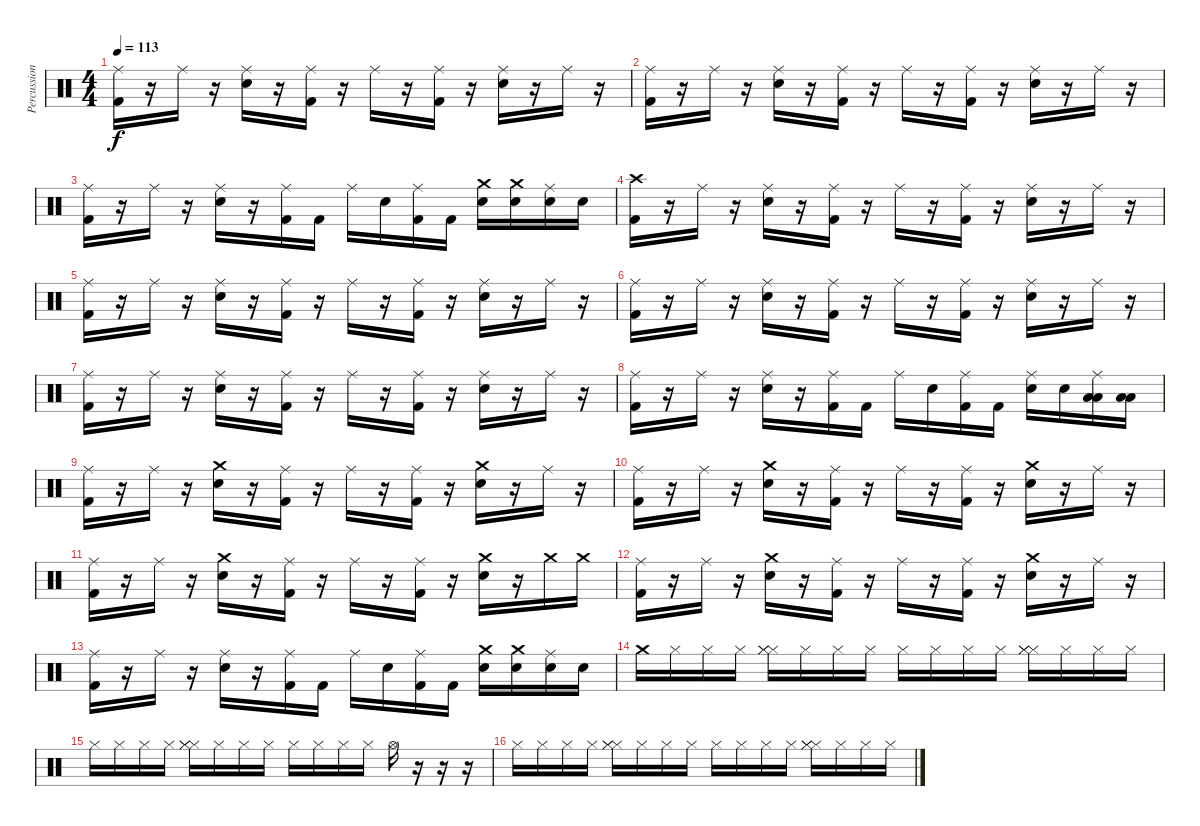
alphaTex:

\track ("Percussion" "Percussion") {instrument percussion}
\staff {score}
\articulation defaults
\ts (4 4)
\tempo 113
\clef neutral
\ks c
("Ride (middle)" "Kick (hit) 2").16{dy f} r.16 "Ride (middle)".16 r.16 ("Ride (middle)" "Snare (hit) 2").16 r.16 ("Ride (middle)" "Kick (hit) 2").16 r.16 "Ride (middle)".16 r.16 ("Ride (middle)" "Kick (hit) 2").16 r.16 ("Ride (middle)" "Snare (hit) 2").16 r.16 "Ride (middle)".16 r.16 |
("Ride (middle)" "Kick (hit) 2").16 r.16 "Ride (middle)".16 r.16 ("Ride (middle)" "Snare (hit) 2").16 r.16 ("Ride (middle)" "Kick (hit) 2").16 r.16 "Ride (middle)".16 r.16 ("Ride (middle)" "Kick (hit) 2").16 r.16 ("Ride (middle)" "Snare (hit) 2").16 r.16 "Ride (middle)".16 r.16 |
("Ride (middle)" "Kick (hit) 2").16 r.16 "Ride (middle)".16 r.16 ("Ride (middle)" "Snare (hit) 2").16 r.16 ("Ride (middle)" "Kick (hit) 2").16 "Kick (hit) 2".16 "Ride (middle)".16 "Snare (hit) 2".16 ("Ride (middle)" "Kick (hit) 2").16 "Kick (hit) 2".16 ("Crash medium (hit)" "Snare (hit) 2").16 ("Crash medium (hit)" "Snare (hit) 2").16 ("Ride (middle)" "Snare (hit) 2").16 "Snare (hit) 2".16 |
("Crash high (hit)" "Kick (hit) 2").16 r.16 "Ride (middle)".16 r.16 ("Ride (middle)" "Snare (hit) 2").16 r.16 ("Ride (middle)" "Kick (hit) 2").16 r.16 "Ride (middle)".16 r.16 ("Ride (middle)" "Kick (hit) 2").16 r.16 ("Ride (middle)" "Snare (hit) 2").16 r.16 "Ride (middle)".16 r.16 |
("Ride (middle)" "Kick (hit) 2").16 r.16 "Ride (middle)".16 r.16 ("Ride (middle)" "Snare (hit) 2").16 r.16 ("Ride (middle)" "Kick (hit) 2").16 r.16 "Ride (middle)".16 r.16 ("Ride (middle)" "Kick (hit) 2").16 r.16 ("Ride (middle)" "Snare (hit) 2").16 r.16 "Ride (middle)".16 r.16 |
("Ride (middle)" "Kick (hit) 2").16 r.16 "Ride (middle)".16 r.16 ("Ride (middle)" "Snare (hit) 2").16 r.16 ("Ride (middle)" "Kick (hit) 2").16 r.16 "Ride (middle)".16 r.16 ("Ride (middle)" "Kick (hit) 2").16 r.16 ("Ride (middle)" "Snare (hit) 2").16 r.16 "Ride (middle)".16 r.16 |
("Ride (middle)" "Kick (hit) 2").16 r.16 "Ride (middle)".16 r.16 ("Ride (middle)" "Snare (hit) 2").16 r.16 ("Ride (middle)" "Kick (hit) 2").16 r.16 "Ride (middle)".16 r.16 ("Ride (middle)" "Kick (hit) 2").16 r.16 ("Ride (middle)" "Snare (hit) 2").16 r.16 "Ride (middle)".16 r.16 |
("Ride (middle)" "Kick (hit) 2").16 r.16 "Ride (middle)".16 r.16 ("Ride (middle)" "Snare (hit) 2").16 r.16 ("Ride (middle)" "Kick (hit) 2").16 "Kick (hit) 2".16 "Ride (middle)".16 "Snare (hit) 2".16 ("Ride (middle)" "Kick (hit) 2").16 "Kick (hit) 2".16 ("Ride (middle)" "Snare (hit) 2").16 "Snare (hit) 2".16 ("Ride (middle)" "Low Tom (hit)" "Low Tom (hit)").16 ("Low Tom (hit)" "Low Tom (hit)").16 |
("Ride (middle)" "Kick (hit) 2").16 r.16 "Ride (middle)".16 r.16 ("Crash medium (hit)" "Snare (hit) 2").16 r.16 ("Ride (middle)" "Kick (hit) 2").16 r.16 "Ride (middle)".16 r.16 ("Ride (middle)" "Kick (hit) 2").16 r.16 ("Crash medium (hit)" "Snare (hit) 2").16 r.16 "Ride (middle)".16 r.16 |
("Ride (middle)" "Kick (hit) 2").16 r.16 "Ride (middle)".16 r.16 ("Crash medium (hit)" "Snare (hit) 2").16 r.16 ("Ride (middle)" "Kick (hit) 2").16 r.16 "Ride (middle)".16 r.16 ("Ride (middle)" "Kick (hit) 2").16 r.16 ("Crash medium (hit)" "Snare (hit) 2").16 r.16 "Ride (middle)".16 r.16 |
("Ride (middle)" "Kick (hit) 2").16 r.16 "Ride (middle)".16 r.16 ("Crash medium (hit)" "Snare (hit) 2").16 r.16 ("Ride (middle)" "Kick (hit) 2").16 r.16 "Ride (middle)".16 r.16 ("Ride (middle)" "Kick (hit) 2").16 r.16 ("Crash medium (hit)" "Snare (hit) 2").16 r.16 "Crash medium (hit)".16 "Crash medium (hit)".16 |
("Ride (middle)" "Kick (hit) 2").16 r.16 "Ride (middle)".16 r.16 ("Crash medium (hit)" "Snare (hit) 2").16 r.16 ("Ride (middle)" "Kick (hit) 2").16 r.16 "Ride (middle)".16 r.16 ("Ride (middle)" "Kick (hit) 2").16 r.16 ("Crash medium (hit)" "Snare (hit) 2").16 r.16 "Ride (middle)".16 r.16 |
("Ride (middle)" "Kick (hit) 2").16 r.16 "Ride (middle)".16 r.16 ("Ride (middle)" "Snare (hit) 2").16 r.16 ("Ride (middle)" "Kick (hit) 2").16 "Kick (hit) 2".16 "Ride (middle)".16 "Snare (hit) 2".16 ("Ride (middle)" "Kick (hit) 2").16 "Kick (hit) 2".16 ("Crash medium (hit)" "Snare (hit) 2").16 ("Crash medium (hit)" "Snare (hit) 2").16 ("Ride (middle)" "Snare (hit) 2").16 "Snare (hit) 2".16 |
"Crash medium (hit)".16 "Hi-Hat (closed)".16 "Hi-Hat (closed)".16 "Hi-Hat (closed)".16 ("Hi-Hat (closed)" "Hi-Hat (closed)" "Hi-Hat (closed)").16 "Hi-Hat (closed)".16 "Hi-Hat (closed)".16 "Hi-Hat (closed)".16 "Hi-Hat (closed)".16 "Hi-Hat (closed)".16 "Hi-Hat (closed)".16 "Hi-Hat (closed)".16 ("Hi-Hat (closed)" "Hi-Hat (closed)" "Hi-Hat (closed)").16 "Hi-Hat (closed)".16 "Hi-Hat (closed)".16 "Hi-Hat (closed)".16 |
"Hi-Hat (closed)".16 "Hi-Hat (closed)".16 "Hi-Hat (closed)".16 "Hi-Hat (closed)".16 ("Hi-Hat (closed)" "Hi-Hat (closed)" "Hi-Hat (closed)").16 "Hi-Hat (closed)".16 "Hi-Hat (closed)".16 "Hi-Hat (closed)".16 "Hi-Hat (closed)".16 "Hi-Hat (closed)".16 "Hi-Hat (closed)".16 "Hi-Hat (closed)".16 "Hi-Hat (open)".16 r.16 r.16 r.16 |
"Hi-Hat (closed)".16 "Hi-Hat (closed)".16 "Hi-Hat (closed)".16 "Hi-Hat (closed)".16 ("Hi-Hat (closed)" "Hi-Hat (closed)" "Hi-Hat (closed)").16 "Hi-Hat (closed)".16 "Hi-Hat (closed)".16 "Hi-Hat (closed)".16 "Hi-Hat (closed)".16 "Hi-Hat (closed)".16 "Hi-Hat (closed)".16 "Hi-Hat (closed)".16 ("Hi-Hat (closed)" "Hi-Hat (closed)" "Hi-Hat (closed)").16 "Hi-Hat (closed)".16 "Hi-Hat (closed)".16 "Hi-Hat (closed)".16
